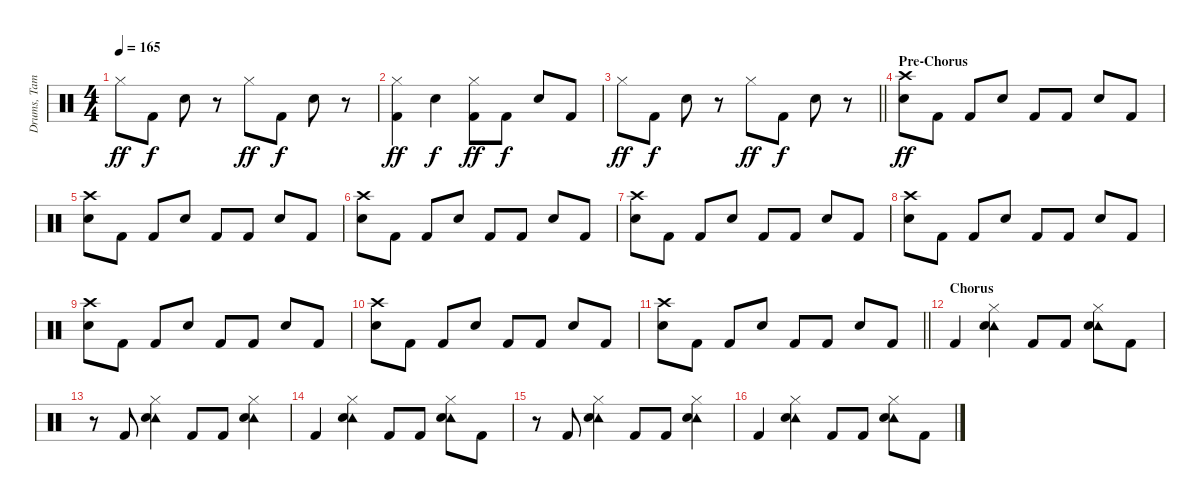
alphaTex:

\track ("Drums, Tambourine, Castinets" "Drums, Tam") {instrument percussion}
\staff {score}
\articulation defaults
\ts (4 4)
\tempo 165
\clef neutral
\ks c "Hi-Hat (closed)".8{dy ff} "Kick (hit) 2".8{dy f} "Snare (hit) 2".8
r.8 "Hi-Hat (closed)".8{dy ff} "Kick (hit) 2".8{dy f} "Snare (hit) 2".8 r.8 |
("Hi-Hat (closed)" "Kick (hit) 2").4{dy ff} "Snare (hit) 2".4{dy f} ("Hi-Hat (closed)" "Kick (hit) 2").8{dy ff} "Kick (hit) 2".8{dy f} "Snare (hit) 2".8 "Kick (hit) 2".8 |
\barLineRight lightlight "Hi-Hat (closed)".8{dy ff} "Kick (hit) 2".8{dy f} "Snare (hit) 2".8
r.8 "Hi-Hat (closed)".8{dy ff} "Kick (hit) 2".8{dy f} "Snare (hit) 2".8 r.8 |
\section ("" "Pre-Chorus")
("Crash high (hit)" "Snare (hit) 2").8{dy ff} "Kick (hit) 2".8 "Kick (hit) 2".8 "Snare (hit) 2".8 "Kick (hit) 2".8 "Kick (hit) 2".8 "Snare (hit) 2".8 "Kick (hit) 2".8 |
("Crash high (hit)" "Snare (hit) 2").8 "Kick (hit) 2".8 "Kick (hit) 2".8 "Snare (hit) 2".8 "Kick (hit) 2".8 "Kick (hit) 2".8 "Snare (hit) 2".8 "Kick (hit) 2".8 |
("Crash high (hit)" "Snare (hit) 2").8 "Kick (hit) 2".8 "Kick (hit) 2".8 "Snare (hit) 2".8 "Kick (hit) 2".8 "Kick (hit) 2".8 "Snare (hit) 2".8 "Kick (hit) 2".8 |
("Crash high (hit)" "Snare (hit) 2").8 "Kick (hit) 2".8 "Kick (hit) 2".8 "Snare (hit) 2".8 "Kick (hit) 2".8 "Kick (hit) 2".8 "Snare (hit) 2".8 "Kick (hit) 2".8 |
("Crash high (hit)" "Snare (hit) 2").8 "Kick (hit) 2".8 "Kick (hit) 2".8 "Snare (hit) 2".8 "Kick (hit) 2".8 "Kick (hit) 2".8 "Snare (hit) 2".8 "Kick (hit) 2".8 |
("Crash high (hit)" "Snare (hit) 2").8 "Kick (hit) 2".8 "Kick (hit) 2".8 "Snare (hit) 2".8 "Kick (hit) 2".8 "Kick (hit) 2".8 "Snare (hit) 2".8 "Kick (hit) 2".8 |
("Crash high (hit)" "Snare (hit) 2").8 "Kick (hit) 2".8 "Kick (hit) 2".8 "Snare (hit) 2".8 "Kick (hit) 2".8 "Kick (hit) 2".8 "Snare (hit) 2".8 "Kick (hit) 2".8 |
\barLineRight lightlight
("Crash high (hit)" "Snare (hit) 2").8 "Kick (hit) 2".8 "Kick (hit) 2".8 "Snare (hit) 2".8 "Kick (hit) 2".8 "Kick (hit) 2".8 "Snare (hit) 2".8 "Kick (hit) 2".8 |
\section ("" "Chorus")
"Kick (hit) 2".4 ("Tambourine (hit)" "Hi-Hat (closed)" "Snare (hit) 2").4 "Kick (hit) 2".8 "Kick (hit) 2".8 ("Tambourine (hit)" "Hi-Hat (closed)" "Snare (hit) 2").8 "Kick (hit) 2".8 |
r.8 "Kick (hit) 2".8 ("Tambourine (hit)" "Hi-Hat (closed)" "Snare (hit) 2").4 "Kick (hit) 2".8 "Kick (hit) 2".8 ("Tambourine (hit)" "Hi-Hat (closed)" "Snare (hit) 2").4 |
"Kick (hit) 2".4 ("Tambourine (hit)" "Hi-Hat (closed)" "Snare (hit) 2").4 "Kick (hit) 2".8 "Kick (hit) 2".8 ("Tambourine (hit)" "Hi-Hat (closed)" "Snare (hit) 2").8 "Kick (hit) 2".8 |
r.8 "Kick (hit) 2".8 ("Tambourine (hit)" "Hi-Hat (closed)" "Snare (hit) 2").4 "Kick (hit) 2".8 "Kick (hit) 2".8 ("Tambourine (hit)" "Hi-Hat (closed)" "Snare (hit) 2").4 |
"Kick (hit) 2".4 ("Tambourine (hit)" "Hi-Hat (closed)" "Snare (hit) 2").4 "Kick (hit) 2".8 "Kick (hit) 2".8 ("Tambourine (hit)" "Hi-Hat (closed)" "Snare (hit) 2").8 "Kick (hit) 2".8
